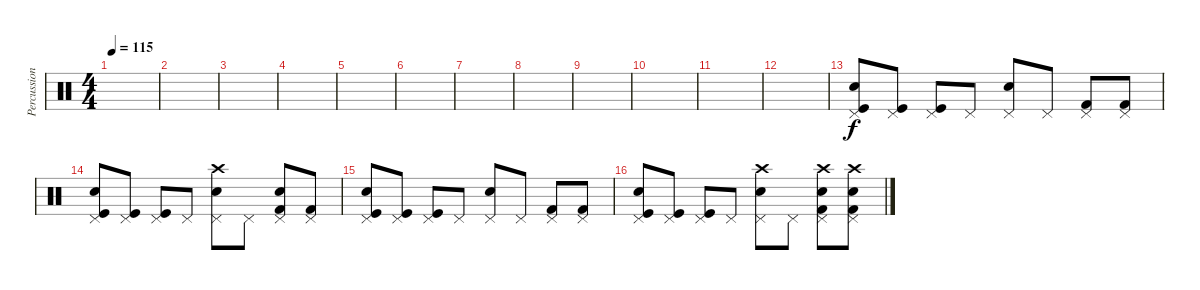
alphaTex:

\track ("Percussion" "Percussion") {mute instrument percussion}
\staff {score}
\articulation defaults
\ts (4 4)
\tempo 115
\clef neutral
\ks c
|
|
|
|
|
|
|
|
|
|
|
|
("Kick (hit)" "Pedal Hi-Hat (hit)" "Electric Snare (hit)").8 ("Kick (hit)" "Pedal Hi-Hat (hit)").8 ("Kick (hit)" "Pedal Hi-Hat (hit)").8 "Pedal Hi-Hat (hit)".8 ("Pedal Hi-Hat (hit)" "Electric Snare (hit)").8 "Pedal Hi-Hat (hit)".8 ("Kick (hit) 2" "Pedal Hi-Hat (hit)").8 ("Kick (hit) 2" "Pedal Hi-Hat (hit)").8 |
("Kick (hit)" "Pedal Hi-Hat (hit)" "Electric Snare (hit)").8 ("Kick (hit)" "Pedal Hi-Hat (hit)").8 ("Kick (hit)" "Pedal Hi-Hat (hit)").8 "Pedal Hi-Hat (hit)".8 ("Pedal Hi-Hat (hit)" "Electric Snare (hit)" "Crash high (hit)").8 "Pedal Hi-Hat (hit)".8 ("Kick (hit) 2" "Pedal Hi-Hat (hit)" "Electric Snare (hit)").8 ("Kick (hit) 2" "Pedal Hi-Hat (hit)").8 |
("Kick (hit)" "Pedal Hi-Hat (hit)" "Electric Snare (hit)").8 ("Kick (hit)" "Pedal Hi-Hat (hit)").8 ("Kick (hit)" "Pedal Hi-Hat (hit)").8 "Pedal Hi-Hat (hit)".8 ("Pedal Hi-Hat (hit)" "Electric Snare (hit)").8 "Pedal Hi-Hat (hit)".8 ("Kick (hit) 2" "Pedal Hi-Hat (hit)").8 ("Kick (hit) 2" "Pedal Hi-Hat (hit)").8 |
("Kick (hit)" "Pedal Hi-Hat (hit)" "Electric Snare (hit)").8 ("Kick (hit)" "Pedal Hi-Hat (hit)").8 ("Kick (hit)" "Pedal Hi-Hat (hit)").8 "Pedal Hi-Hat (hit)".8 ("Pedal Hi-Hat (hit)" "Electric Snare (hit)" "Crash high (hit)").8 "Pedal Hi-Hat (hit)".8 ("Kick (hit) 2" "Pedal Hi-Hat (hit)" "Electric Snare (hit)" "Crash high (hit)").8 ("Kick (hit) 2" "Pedal Hi-Hat (hit)" "Electric Snare (hit)" "Crash high (hit)").8
